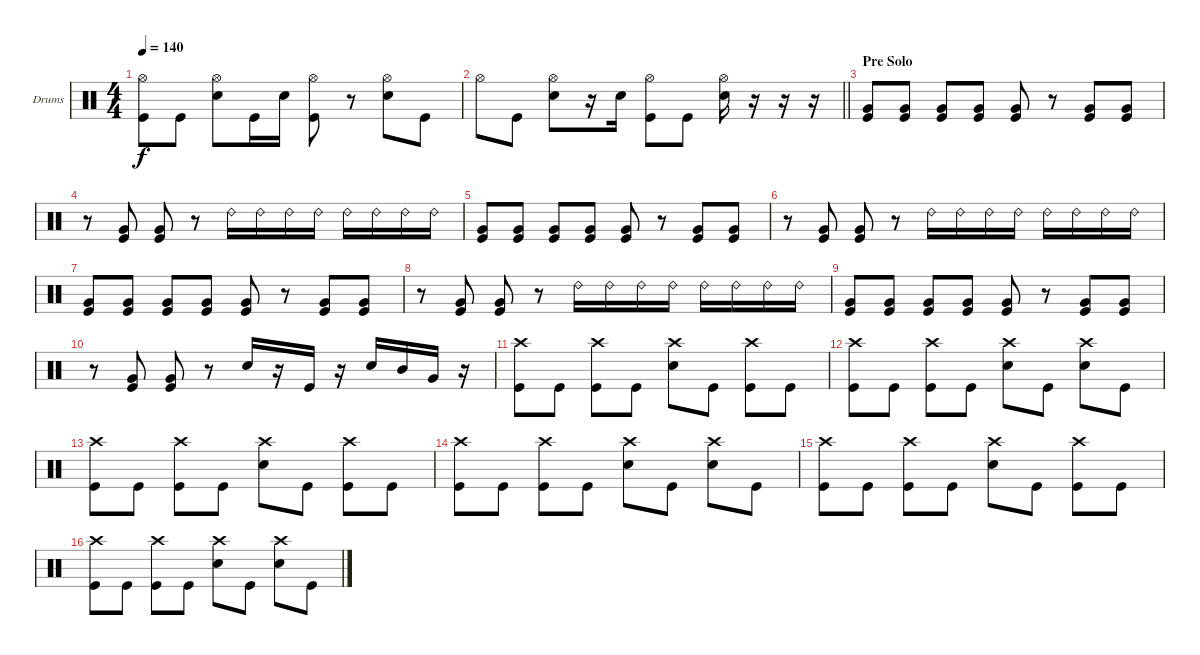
\bracketExtendMode groupsimilarinstruments
\firstSystemTrackNameOrientation horizontal
\otherSystemsTrackNameOrientation horizontal
\track ("Dave McClain" "Drums") {instrument percussion}
\staff {score}
\articulation defaults
\ts (4 4)
\tempo 140
\clef neutral
\ks c
("Hi-Hat (open)" "Kick (hit)").8{dy f} "Kick (hit)".8 ("Hi-Hat (open)" "Snare (hit) 2").8 "Kick (hit)".16 "Snare (hit) 2".16 ("Hi-Hat (open)" "Kick (hit)").8 r.8 ("Hi-Hat (open)" "Snare (hit) 2").8 "Kick (hit)".8 |
\barLineRight lightlight "Hi-Hat (open)".8 "Kick (hit)".8
("Hi-Hat (open)" "Snare (hit) 2").8 r.16 "Snare (hit) 2".16 ("Hi-Hat (open)" "Kick (hit)").8 "Kick (hit)".8 ("Hi-Hat (open)" "Snare (hit) 2").16 r.16 r.16 r.16 |
\section ("" "Pre Solo")
("Very Low Tom (hit)" "Kick (hit)").8 ("Very Low Tom (hit)" "Kick (hit)").8 ("Very Low Tom (hit)" "Kick (hit)").8 ("Very Low Tom (hit)" "Kick (hit)").8 ("Very Low Tom (hit)" "Kick (hit)").8 r.8 ("Very Low Tom (hit)" "Kick (hit)").8 ("Very Low Tom (hit)" "Kick (hit)").8 |
r.8 ("Very Low Tom (hit)" "Kick (hit)").8 ("Very Low Tom (hit)" "Kick (hit)").8 r.8 "Ride (bell) 2".16 "Ride (bell) 2".16 "Ride (bell) 2".16 "Ride (bell) 2".16 "Ride (bell) 2".16 "Ride (bell) 2".16 "Ride (bell) 2".16 "Ride (bell) 2".16 |
("Very Low Tom (hit)" "Kick (hit)").8 ("Very Low Tom (hit)" "Kick (hit)").8 ("Very Low Tom (hit)" "Kick (hit)").8 ("Very Low Tom (hit)" "Kick (hit)").8 ("Very Low Tom (hit)" "Kick (hit)").8 r.8 ("Very Low Tom (hit)" "Kick (hit)").8 ("Very Low Tom (hit)" "Kick (hit)").8 |
r.8 ("Very Low Tom (hit)" "Kick (hit)").8 ("Very Low Tom (hit)" "Kick (hit)").8 r.8 "Ride (bell) 2".16 "Ride (bell) 2".16 "Ride (bell) 2".16 "Ride (bell) 2".16 "Ride (bell) 2".16 "Ride (bell) 2".16 "Ride (bell) 2".16 "Ride (bell) 2".16 |
("Very Low Tom (hit)" "Kick (hit)").8 ("Very Low Tom (hit)" "Kick (hit)").8 ("Very Low Tom (hit)" "Kick (hit)").8 ("Very Low Tom (hit)" "Kick (hit)").8 ("Very Low Tom (hit)" "Kick (hit)").8 r.8 ("Very Low Tom (hit)" "Kick (hit)").8 ("Very Low Tom (hit)" "Kick (hit)").8 |
r.8 ("Very Low Tom (hit)" "Kick (hit)").8 ("Very Low Tom (hit)" "Kick (hit)").8 r.8 "Ride (bell) 2".16 "Ride (bell) 2".16 "Ride (bell) 2".16 "Ride (bell) 2".16 "Ride (bell) 2".16 "Ride (bell) 2".16 "Ride (bell) 2".16 "Ride (bell) 2".16 |
("Very Low Tom (hit)" "Kick (hit)").8 ("Very Low Tom (hit)" "Kick (hit)").8 ("Very Low Tom (hit)" "Kick (hit)").8 ("Very Low Tom (hit)" "Kick (hit)").8 ("Very Low Tom (hit)" "Kick (hit)").8 r.8 ("Very Low Tom (hit)" "Kick (hit)").8 ("Very Low Tom (hit)" "Kick (hit)").8 |
r.8 ("Very Low Tom (hit)" "Kick (hit)").8 ("Very Low Tom (hit)" "Kick (hit)").8 r.8 "Snare (hit) 2".16 r.16 "Kick (hit)".16 r.16 "Snare (hit) 2".16 "Mid Tom (hit)".16 "Very Low Tom (hit)".16 r.16 |
("Crash high (hit)" "Kick (hit)").8 "Kick (hit)".8 ("Crash high (hit)" "Kick (hit)").8 "Kick (hit)".8 ("Crash high (hit)" "Snare (hit) 2").8 "Kick (hit)".8 ("Crash high (hit)" "Kick (hit)").8 "Kick (hit)".8 |
("Crash high (hit)" "Kick (hit)").8 "Kick (hit)".8 ("Crash high (hit)" "Kick (hit)").8 "Kick (hit)".8 ("Crash high (hit)" "Snare (hit) 2").8 "Kick (hit)".8 ("Crash high (hit)" "Snare (hit) 2").8 "Kick (hit)".8 |
("Crash high (hit)" "Kick (hit)").8 "Kick (hit)".8 ("Crash high (hit)" "Kick (hit)").8 "Kick (hit)".8 ("Crash high (hit)" "Snare (hit) 2").8 "Kick (hit)".8 ("Crash high (hit)" "Kick (hit)").8 "Kick (hit)".8 |
("Crash high (hit)" "Kick (hit)").8 "Kick (hit)".8 ("Crash high (hit)" "Kick (hit)").8 "Kick (hit)".8 ("Crash high (hit)" "Snare (hit) 2").8 "Kick (hit)".8 ("Crash high (hit)" "Snare (hit) 2").8 "Kick (hit)".8 |
("Crash high (hit)" "Kick (hit)").8 "Kick (hit)".8 ("Crash high (hit)" "Kick (hit)").8 "Kick (hit)".8 ("Crash high (hit)" "Snare (hit) 2").8 "Kick (hit)".8 ("Crash high (hit)" "Kick (hit)").8 "Kick (hit)".8 |
("Crash high (hit)" "Kick (hit)").8 "Kick (hit)".8 ("Crash high (hit)" "Kick (hit)").8 "Kick (hit)".8 ("Crash high (hit)" "Snare (hit) 2").8 "Kick (hit)".8 ("Crash high (hit)" "Snare (hit) 2").8 "Kick (hit)".8
